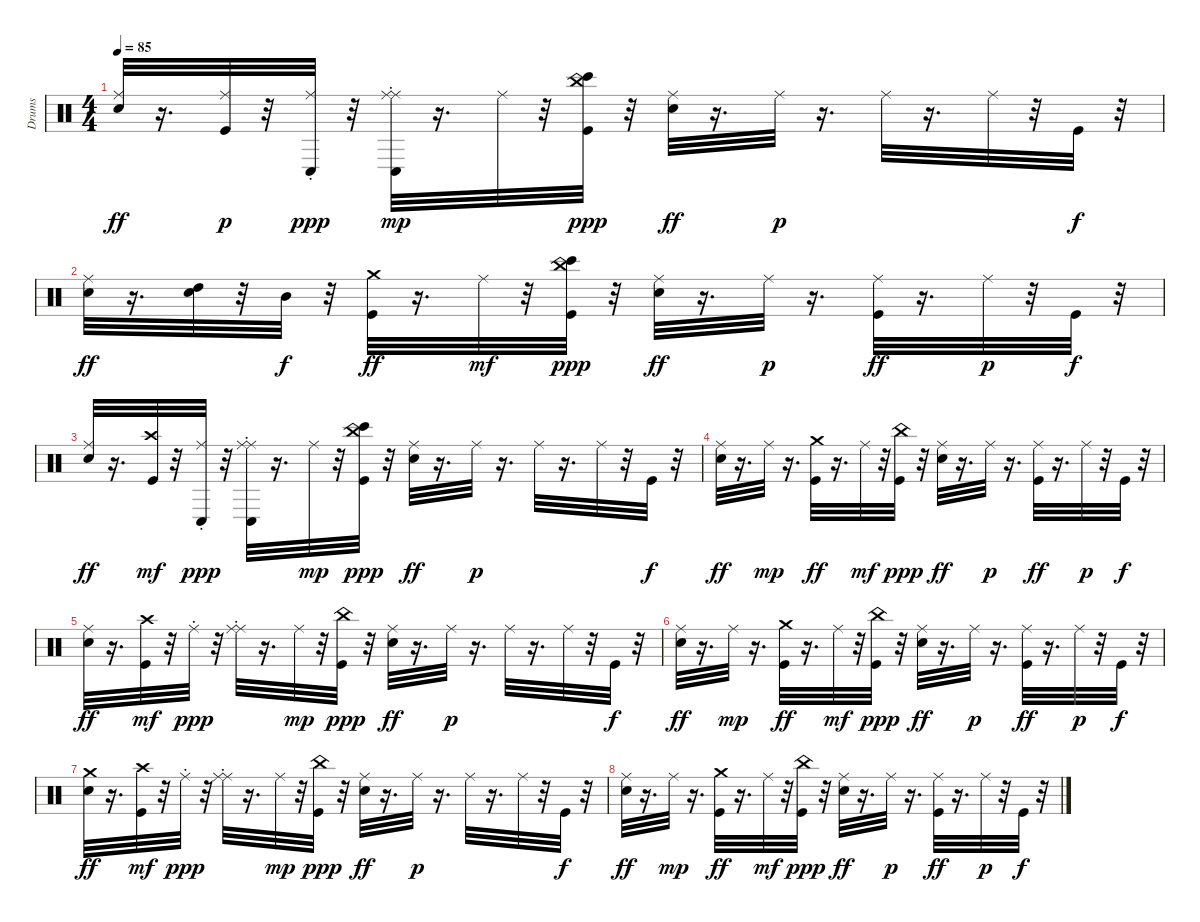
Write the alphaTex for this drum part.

\track ("Drums" "Drums") {instrument percussion}
\staff {score}
\articulation defaults
\ts (4 4)
\tempo 85
\clef neutral
\ks c
("Ride (middle)" "Electric Snare (hit)").32{dy ff} r.16{d} ("Ride (middle)" "Kick (hit)").32{dy p} r.32 ("Conga low (hit)" "Ride (choke)").32{dy ppp} r.32 ("Conga low (hit)" "Ride (choke)" "Ride (middle)").32{dy mp} r.16{d} "Ride (middle)".32 r.32 ("China (choke)" "Bongo High (hit)" "Kick (hit)").32{dy ppp} r.32 ("Ride (middle)" "Electric Snare (hit)").32{dy ff} r.16{d} "Ride (middle)".32{dy p} r.16{d} "Ride (middle)".32 r.16{d} "Ride (middle)".32 r.32 "Kick (hit)".32{dy f} r.32 |
("Ride (middle)" "Electric Snare (hit)").32{dy ff} r.16{d} ("Snare (hit)" "High Tom (hit)").32 r.32 "Mid Tom (hit)".32{dy f} r.32 ("Crash medium (hit)" "Kick (hit)").32{dy ff} r.16{d} "Ride (middle)".32{dy mf} r.32 ("Bongo High (hit)" "China (choke)" "Kick (hit)").32{dy ppp} r.32 ("Ride (middle)" "Electric Snare (hit)").32{dy ff} r.16{d} "Ride (middle)".32{dy p} r.16{d} ("Ride (middle)" "Kick (hit)").32{dy ff} r.16{d} "Ride (middle)".32{dy p} r.32 "Kick (hit)".32{dy f} r.32 |
("Ride (middle)" "Electric Snare (hit)").32{dy ff} r.16{d} ("Crash high (hit)" "Kick (hit)").32{dy mf} r.32 ("Conga low (hit)" "Ride (choke)").32{dy ppp} r.32 ("Ride (middle)" "Conga low (hit)" "Ride (choke)").32 r.16{d} "Ride (middle)".32{dy mp} r.32 ("Bongo High (hit)" "China (choke)" "Kick (hit)").32{dy ppp} r.32 ("Ride (middle)" "Electric Snare (hit)").32{dy ff} r.16{d} "Ride (middle)".32{dy p} r.16{d} "Ride (middle)".32 r.16{d} "Ride (middle)".32 r.32 "Kick (hit)".32{dy f} r.32 |
("Ride (middle)" "Electric Snare (hit)").32{dy ff} r.16{d} "Ride (middle)".32{dy mp} r.16{d} ("Crash medium (hit)" "Kick (hit)").32{dy ff} r.16{d} "Ride (middle)".32{dy mf} r.32 ("China (choke)" "Kick (hit)").32{dy ppp} r.32 ("Ride (middle)" "Electric Snare (hit)").32{dy ff} r.16{d} "Ride (middle)".32{dy p} r.16{d} ("Ride (middle)" "Kick (hit)").32{dy ff} r.16{d} "Ride (middle)".32{dy p} r.32 "Kick (hit)".32{dy f} r.32 |
("Ride (middle)" "Electric Snare (hit)").32{dy ff} r.16{d} ("Crash high (hit)" "Kick (hit)").32{dy mf} r.32 "Ride (choke)".32{dy ppp} r.32 ("Ride (middle)" "Ride (choke)").32 r.16{d} "Ride (middle)".32{dy mp} r.32 ("China (choke)" "Kick (hit)").32{dy ppp} r.32 ("Ride (middle)" "Electric Snare (hit)").32{dy ff} r.16{d} "Ride (middle)".32{dy p} r.16{d} "Ride (middle)".32 r.16{d} "Ride (middle)".32 r.32 "Kick (hit)".32{dy f} r.32 |
("Ride (middle)" "Electric Snare (hit)").32{dy ff} r.16{d} "Ride (middle)".32{dy mp} r.16{d} ("Crash medium (hit)" "Kick (hit)").32{dy ff} r.16{d} "Ride (middle)".32{dy mf} r.32 ("China (choke)" "Kick (hit)").32{dy ppp} r.32 ("Ride (middle)" "Electric Snare (hit)").32{dy ff} r.16{d} "Ride (middle)".32{dy p} r.16{d} ("Ride (middle)" "Kick (hit)").32{dy ff} r.16{d} "Ride (middle)".32{dy p} r.32 "Kick (hit)".32{dy f} r.32 |
("Crash medium (hit)" "Electric Snare (hit)").32{dy ff} r.16{d} ("Crash high (hit)" "Kick (hit)").32{dy mf} r.32 "Ride (choke)".32{dy ppp} r.32 ("Ride (middle)" "Ride (choke)").32 r.16{d} "Ride (middle)".32{dy mp} r.32 ("China (choke)" "Kick (hit)").32{dy ppp} r.32 ("Ride (middle)" "Electric Snare (hit)").32{dy ff} r.16{d} "Ride (middle)".32{dy p} r.16{d} "Ride (middle)".32 r.16{d} "Ride (middle)".32 r.32 "Kick (hit)".32{dy f} r.32 |
("Ride (middle)" "Electric Snare (hit)").32{dy ff} r.16{d} "Ride (middle)".32{dy mp} r.16{d} ("Crash medium (hit)" "Kick (hit)").32{dy ff} r.16{d} "Ride (middle)".32{dy mf} r.32 ("China (choke)" "Kick (hit)").32{dy ppp} r.32 ("Ride (middle)" "Electric Snare (hit)").32{dy ff} r.16{d} "Ride (middle)".32{dy p} r.16{d} ("Ride (middle)" "Kick (hit)").32{dy ff} r.16{d} "Ride (middle)".32{dy p} r.32 "Kick (hit)".32{dy f} r.32
